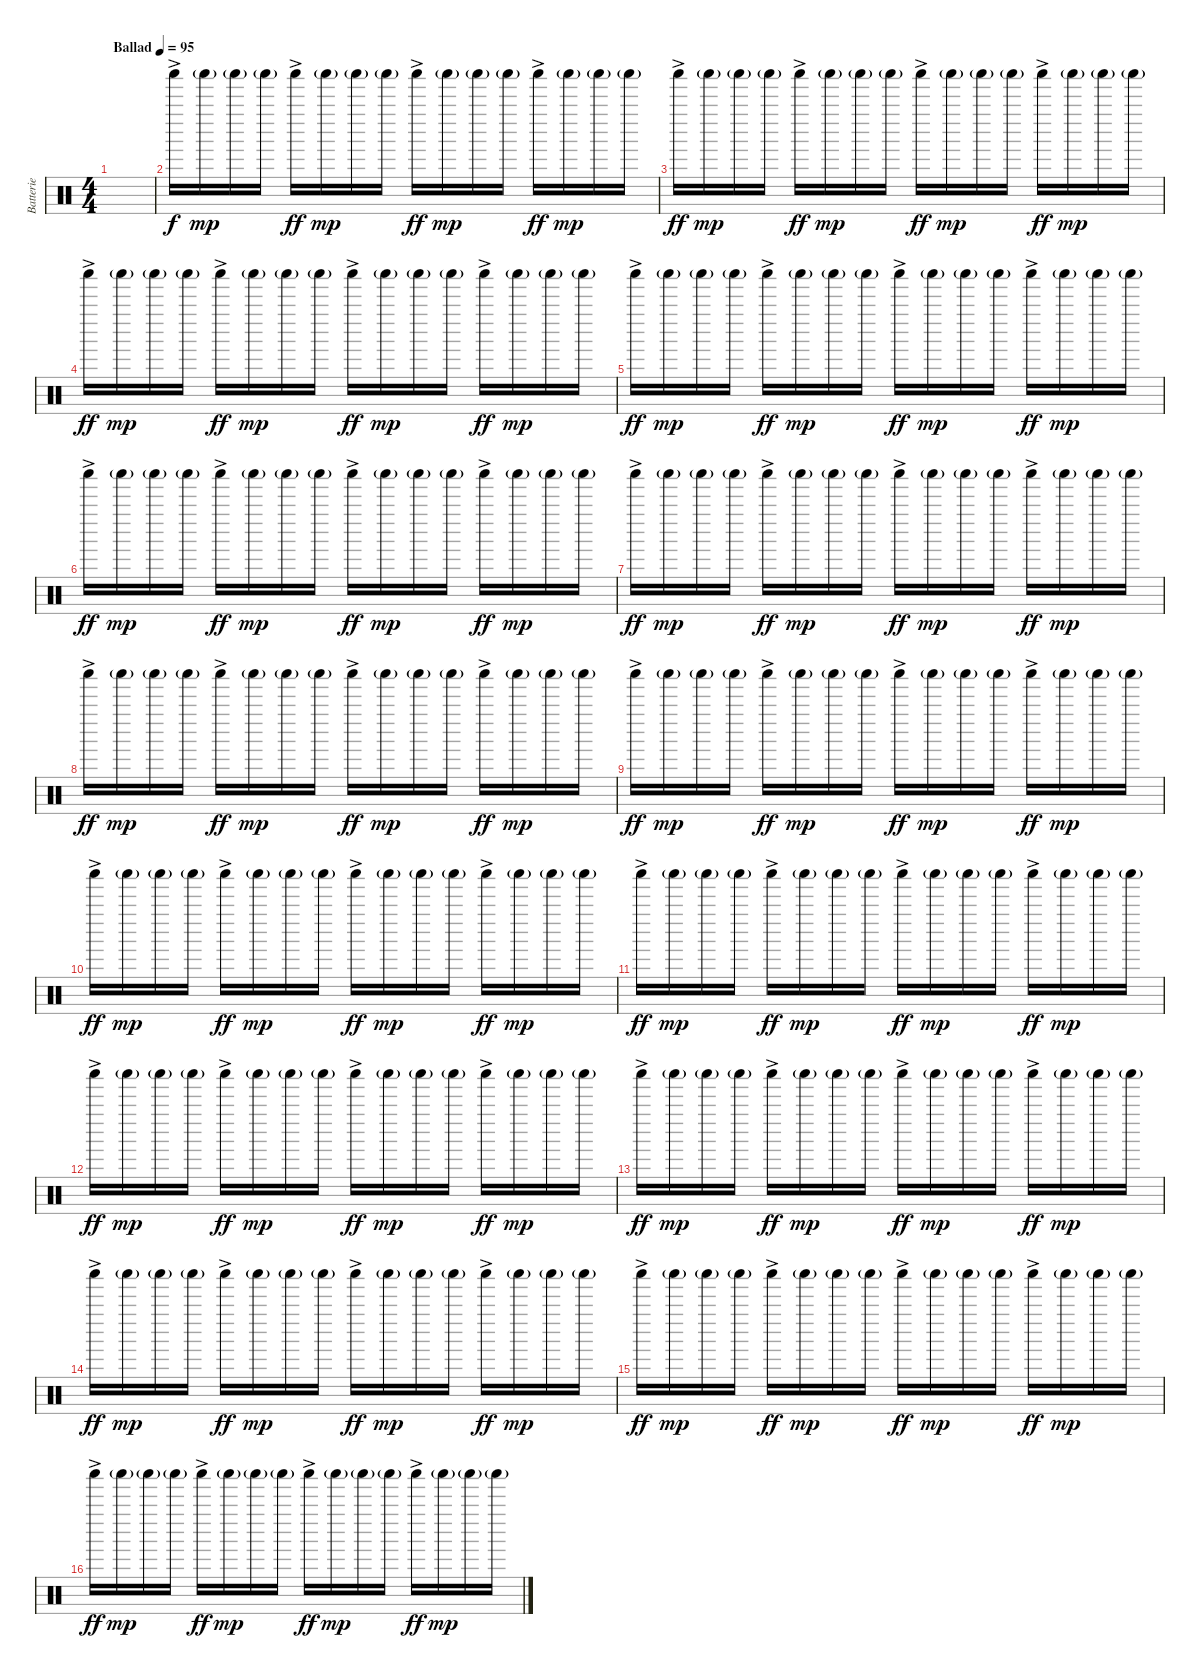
\track ("Batterie" "Batterie") {instrument percussion}
\staff {score}
\articulation defaults
\ts (4 4)
\tempo (95 "Ballad")
\clef neutral
\ks c
|
"Shaker (hit)"{ac}.16 "Shaker (hit)"{g}.16{dy mp} "Shaker (hit)"{g}.16 "Shaker (hit)"{g}.16 "Shaker (hit)"{ac}.16{dy ff} "Shaker (hit)"{g}.16{dy mp} "Shaker (hit)"{g}.16 "Shaker (hit)"{g}.16 "Shaker (hit)"{ac}.16{dy ff} "Shaker (hit)"{g}.16{dy mp} "Shaker (hit)"{g}.16 "Shaker (hit)"{g}.16 "Shaker (hit)"{ac}.16{dy ff} "Shaker (hit)"{g}.16{dy mp} "Shaker (hit)"{g}.16 "Shaker (hit)"{g}.16 |
"Shaker (hit)"{ac}.16{dy ff} "Shaker (hit)"{g}.16{dy mp} "Shaker (hit)"{g}.16 "Shaker (hit)"{g}.16 "Shaker (hit)"{ac}.16{dy ff} "Shaker (hit)"{g}.16{dy mp} "Shaker (hit)"{g}.16 "Shaker (hit)"{g}.16 "Shaker (hit)"{ac}.16{dy ff} "Shaker (hit)"{g}.16{dy mp} "Shaker (hit)"{g}.16 "Shaker (hit)"{g}.16 "Shaker (hit)"{ac}.16{dy ff} "Shaker (hit)"{g}.16{dy mp} "Shaker (hit)"{g}.16 "Shaker (hit)"{g}.16 |
"Shaker (hit)"{ac}.16{dy ff} "Shaker (hit)"{g}.16{dy mp} "Shaker (hit)"{g}.16 "Shaker (hit)"{g}.16 "Shaker (hit)"{ac}.16{dy ff} "Shaker (hit)"{g}.16{dy mp} "Shaker (hit)"{g}.16 "Shaker (hit)"{g}.16 "Shaker (hit)"{ac}.16{dy ff} "Shaker (hit)"{g}.16{dy mp} "Shaker (hit)"{g}.16 "Shaker (hit)"{g}.16 "Shaker (hit)"{ac}.16{dy ff} "Shaker (hit)"{g}.16{dy mp} "Shaker (hit)"{g}.16 "Shaker (hit)"{g}.16 |
"Shaker (hit)"{ac}.16{dy ff} "Shaker (hit)"{g}.16{dy mp} "Shaker (hit)"{g}.16 "Shaker (hit)"{g}.16 "Shaker (hit)"{ac}.16{dy ff} "Shaker (hit)"{g}.16{dy mp} "Shaker (hit)"{g}.16 "Shaker (hit)"{g}.16 "Shaker (hit)"{ac}.16{dy ff} "Shaker (hit)"{g}.16{dy mp} "Shaker (hit)"{g}.16 "Shaker (hit)"{g}.16 "Shaker (hit)"{ac}.16{dy ff} "Shaker (hit)"{g}.16{dy mp} "Shaker (hit)"{g}.16 "Shaker (hit)"{g}.16 |
"Shaker (hit)"{ac}.16{dy ff} "Shaker (hit)"{g}.16{dy mp} "Shaker (hit)"{g}.16 "Shaker (hit)"{g}.16 "Shaker (hit)"{ac}.16{dy ff} "Shaker (hit)"{g}.16{dy mp} "Shaker (hit)"{g}.16 "Shaker (hit)"{g}.16 "Shaker (hit)"{ac}.16{dy ff} "Shaker (hit)"{g}.16{dy mp} "Shaker (hit)"{g}.16 "Shaker (hit)"{g}.16 "Shaker (hit)"{ac}.16{dy ff} "Shaker (hit)"{g}.16{dy mp} "Shaker (hit)"{g}.16 "Shaker (hit)"{g}.16 |
"Shaker (hit)"{ac}.16{dy ff} "Shaker (hit)"{g}.16{dy mp} "Shaker (hit)"{g}.16 "Shaker (hit)"{g}.16 "Shaker (hit)"{ac}.16{dy ff} "Shaker (hit)"{g}.16{dy mp} "Shaker (hit)"{g}.16 "Shaker (hit)"{g}.16 "Shaker (hit)"{ac}.16{dy ff} "Shaker (hit)"{g}.16{dy mp} "Shaker (hit)"{g}.16 "Shaker (hit)"{g}.16 "Shaker (hit)"{ac}.16{dy ff} "Shaker (hit)"{g}.16{dy mp} "Shaker (hit)"{g}.16 "Shaker (hit)"{g}.16 |
"Shaker (hit)"{ac}.16{dy ff} "Shaker (hit)"{g}.16{dy mp} "Shaker (hit)"{g}.16 "Shaker (hit)"{g}.16 "Shaker (hit)"{ac}.16{dy ff} "Shaker (hit)"{g}.16{dy mp} "Shaker (hit)"{g}.16 "Shaker (hit)"{g}.16 "Shaker (hit)"{ac}.16{dy ff} "Shaker (hit)"{g}.16{dy mp} "Shaker (hit)"{g}.16 "Shaker (hit)"{g}.16 "Shaker (hit)"{ac}.16{dy ff} "Shaker (hit)"{g}.16{dy mp} "Shaker (hit)"{g}.16 "Shaker (hit)"{g}.16 |
"Shaker (hit)"{ac}.16{dy ff} "Shaker (hit)"{g}.16{dy mp} "Shaker (hit)"{g}.16 "Shaker (hit)"{g}.16 "Shaker (hit)"{ac}.16{dy ff} "Shaker (hit)"{g}.16{dy mp} "Shaker (hit)"{g}.16 "Shaker (hit)"{g}.16 "Shaker (hit)"{ac}.16{dy ff} "Shaker (hit)"{g}.16{dy mp} "Shaker (hit)"{g}.16 "Shaker (hit)"{g}.16 "Shaker (hit)"{ac}.16{dy ff} "Shaker (hit)"{g}.16{dy mp} "Shaker (hit)"{g}.16 "Shaker (hit)"{g}.16 |
"Shaker (hit)"{ac}.16{dy ff} "Shaker (hit)"{g}.16{dy mp} "Shaker (hit)"{g}.16 "Shaker (hit)"{g}.16 "Shaker (hit)"{ac}.16{dy ff} "Shaker (hit)"{g}.16{dy mp} "Shaker (hit)"{g}.16 "Shaker (hit)"{g}.16 "Shaker (hit)"{ac}.16{dy ff} "Shaker (hit)"{g}.16{dy mp} "Shaker (hit)"{g}.16 "Shaker (hit)"{g}.16 "Shaker (hit)"{ac}.16{dy ff} "Shaker (hit)"{g}.16{dy mp} "Shaker (hit)"{g}.16 "Shaker (hit)"{g}.16 |
"Shaker (hit)"{ac}.16{dy ff} "Shaker (hit)"{g}.16{dy mp} "Shaker (hit)"{g}.16 "Shaker (hit)"{g}.16 "Shaker (hit)"{ac}.16{dy ff} "Shaker (hit)"{g}.16{dy mp} "Shaker (hit)"{g}.16 "Shaker (hit)"{g}.16 "Shaker (hit)"{ac}.16{dy ff} "Shaker (hit)"{g}.16{dy mp} "Shaker (hit)"{g}.16 "Shaker (hit)"{g}.16 "Shaker (hit)"{ac}.16{dy ff} "Shaker (hit)"{g}.16{dy mp} "Shaker (hit)"{g}.16 "Shaker (hit)"{g}.16 |
"Shaker (hit)"{ac}.16{dy ff} "Shaker (hit)"{g}.16{dy mp} "Shaker (hit)"{g}.16 "Shaker (hit)"{g}.16 "Shaker (hit)"{ac}.16{dy ff} "Shaker (hit)"{g}.16{dy mp} "Shaker (hit)"{g}.16 "Shaker (hit)"{g}.16 "Shaker (hit)"{ac}.16{dy ff} "Shaker (hit)"{g}.16{dy mp} "Shaker (hit)"{g}.16 "Shaker (hit)"{g}.16 "Shaker (hit)"{ac}.16{dy ff} "Shaker (hit)"{g}.16{dy mp} "Shaker (hit)"{g}.16 "Shaker (hit)"{g}.16 |
"Shaker (hit)"{ac}.16{dy ff} "Shaker (hit)"{g}.16{dy mp} "Shaker (hit)"{g}.16 "Shaker (hit)"{g}.16 "Shaker (hit)"{ac}.16{dy ff} "Shaker (hit)"{g}.16{dy mp} "Shaker (hit)"{g}.16 "Shaker (hit)"{g}.16 "Shaker (hit)"{ac}.16{dy ff} "Shaker (hit)"{g}.16{dy mp} "Shaker (hit)"{g}.16 "Shaker (hit)"{g}.16 "Shaker (hit)"{ac}.16{dy ff} "Shaker (hit)"{g}.16{dy mp} "Shaker (hit)"{g}.16 "Shaker (hit)"{g}.16 |
"Shaker (hit)"{ac}.16{dy ff} "Shaker (hit)"{g}.16{dy mp} "Shaker (hit)"{g}.16 "Shaker (hit)"{g}.16 "Shaker (hit)"{ac}.16{dy ff} "Shaker (hit)"{g}.16{dy mp} "Shaker (hit)"{g}.16 "Shaker (hit)"{g}.16 "Shaker (hit)"{ac}.16{dy ff} "Shaker (hit)"{g}.16{dy mp} "Shaker (hit)"{g}.16 "Shaker (hit)"{g}.16 "Shaker (hit)"{ac}.16{dy ff} "Shaker (hit)"{g}.16{dy mp} "Shaker (hit)"{g}.16 "Shaker (hit)"{g}.16 |
"Shaker (hit)"{ac}.16{dy ff} "Shaker (hit)"{g}.16{dy mp} "Shaker (hit)"{g}.16 "Shaker (hit)"{g}.16 "Shaker (hit)"{ac}.16{dy ff} "Shaker (hit)"{g}.16{dy mp} "Shaker (hit)"{g}.16 "Shaker (hit)"{g}.16 "Shaker (hit)"{ac}.16{dy ff} "Shaker (hit)"{g}.16{dy mp} "Shaker (hit)"{g}.16 "Shaker (hit)"{g}.16 "Shaker (hit)"{ac}.16{dy ff} "Shaker (hit)"{g}.16{dy mp} "Shaker (hit)"{g}.16 "Shaker (hit)"{g}.16 |
"Shaker (hit)"{ac}.16{dy ff} "Shaker (hit)"{g}.16{dy mp} "Shaker (hit)"{g}.16 "Shaker (hit)"{g}.16 "Shaker (hit)"{ac}.16{dy ff} "Shaker (hit)"{g}.16{dy mp} "Shaker (hit)"{g}.16 "Shaker (hit)"{g}.16 "Shaker (hit)"{ac}.16{dy ff} "Shaker (hit)"{g}.16{dy mp} "Shaker (hit)"{g}.16 "Shaker (hit)"{g}.16 "Shaker (hit)"{ac}.16{dy ff} "Shaker (hit)"{g}.16{dy mp} "Shaker (hit)"{g}.16 "Shaker (hit)"{g}.16
